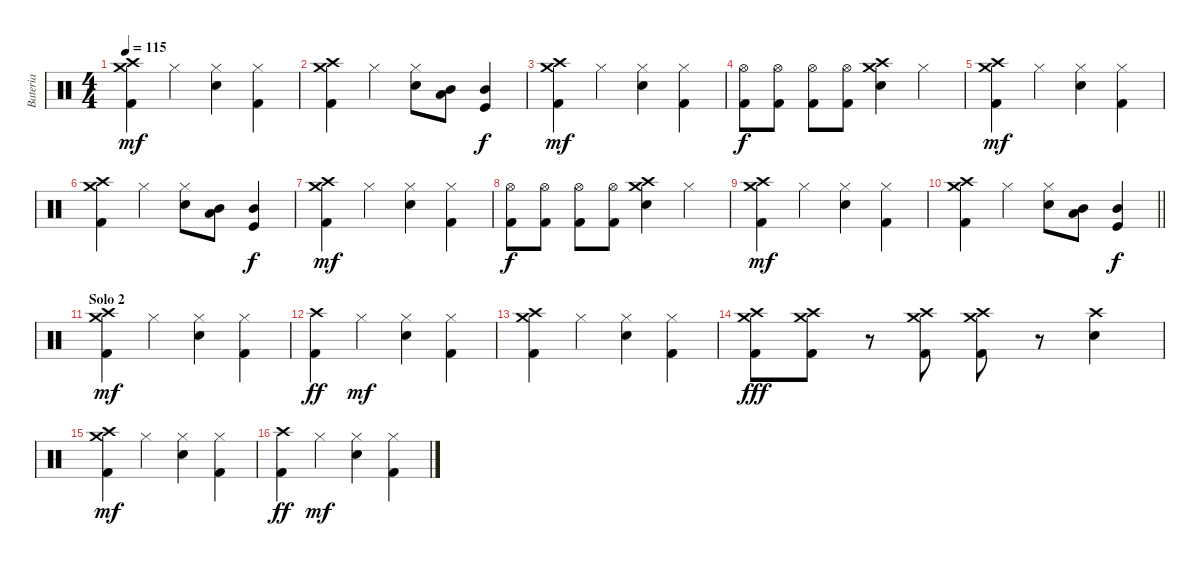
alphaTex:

\track ("Bateria" "Bateria") {instrument percussion}
\staff {score}
\articulation defaults
\ts (4 4)
\tempo 115
\clef neutral
\ks c
("Crash medium (hit)" "Kick (hit) 2" "Crash high (hit)").4{dy mf} "Hi-Hat (closed)".4 ("Hi-Hat (closed)" "Snare (hit) 2").4 ("Hi-Hat (closed)" "Kick (hit) 2").4 |
("Crash medium (hit)" "Kick (hit) 2" "Crash high (hit)").4 "Hi-Hat (closed)".4 ("Hi-Hat (closed)" "Snare (hit) 2").8 ("Low Tom (hit)" "Mid Tom (hit)").8 ("Mid Tom (hit)" "Kick (hit)").4{dy f} |
("Crash medium (hit)" "Kick (hit) 2" "Crash high (hit)").4{dy mf} "Hi-Hat (closed)".4 ("Hi-Hat (closed)" "Snare (hit) 2").4 ("Hi-Hat (closed)" "Kick (hit) 2").4 |
("Kick (hit) 2" "Hi-Hat (open)").8{dy f} ("Kick (hit) 2" "Hi-Hat (open)").8 ("Kick (hit) 2" "Hi-Hat (open)").8 ("Kick (hit) 2" "Hi-Hat (open)").8 ("Snare (hit) 2" "Crash high (hit)" "Crash medium (hit)").4 "Hi-Hat (closed)".4 |
("Crash medium (hit)" "Kick (hit) 2" "Crash high (hit)").4{dy mf} "Hi-Hat (closed)".4 ("Hi-Hat (closed)" "Snare (hit) 2").4 ("Hi-Hat (closed)" "Kick (hit) 2").4 |
("Crash medium (hit)" "Kick (hit) 2" "Crash high (hit)").4 "Hi-Hat (closed)".4 ("Hi-Hat (closed)" "Snare (hit) 2").8 ("Low Tom (hit)" "Mid Tom (hit)").8 ("Mid Tom (hit)" "Kick (hit)").4{dy f} |
("Crash medium (hit)" "Kick (hit) 2" "Crash high (hit)").4{dy mf} "Hi-Hat (closed)".4 ("Hi-Hat (closed)" "Snare (hit) 2").4 ("Hi-Hat (closed)" "Kick (hit) 2").4 |
("Kick (hit) 2" "Hi-Hat (open)").8{dy f} ("Kick (hit) 2" "Hi-Hat (open)").8 ("Kick (hit) 2" "Hi-Hat (open)").8 ("Kick (hit) 2" "Hi-Hat (open)").8 ("Snare (hit) 2" "Crash high (hit)" "Crash medium (hit)").4 "Hi-Hat (closed)".4 |
("Crash medium (hit)" "Kick (hit) 2" "Crash high (hit)").4{dy mf} "Hi-Hat (closed)".4 ("Hi-Hat (closed)" "Snare (hit) 2").4 ("Hi-Hat (closed)" "Kick (hit) 2").4 |
\barLineRight lightlight
("Crash medium (hit)" "Kick (hit) 2" "Crash high (hit)").4 "Hi-Hat (closed)".4 ("Hi-Hat (closed)" "Snare (hit) 2").8 ("Low Tom (hit)" "Mid Tom (hit)").8 ("Mid Tom (hit)" "Kick (hit)").4{dy f} |
\section ("" "Solo 2 ")
("Crash medium (hit)" "Kick (hit) 2" "Crash high (hit)").4{dy mf} "Hi-Hat (closed)".4 ("Hi-Hat (closed)" "Snare (hit) 2").4 ("Hi-Hat (closed)" "Kick (hit) 2").4 |
("Crash high (hit)" "Kick (hit) 2").4{dy ff} "Hi-Hat (closed)".4{dy mf} ("Hi-Hat (closed)" "Snare (hit) 2").4 ("Hi-Hat (closed)" "Kick (hit) 2").4 |
("Crash medium (hit)" "Kick (hit) 2" "Crash high (hit)").4 "Hi-Hat (closed)".4 ("Hi-Hat (closed)" "Snare (hit) 2").4 ("Hi-Hat (closed)" "Kick (hit) 2").4 |
("Crash high (hit)" "Kick (hit) 2" "Crash medium (hit)").8{dy fff} ("Crash high (hit)" "Kick (hit) 2" "Crash medium (hit)").8 r.8 ("Crash high (hit)" "Kick (hit) 2" "Crash medium (hit)").8 ("Crash high (hit)" "Kick (hit) 2" "Crash medium (hit)").8 r.8 ("Crash high (hit)" "Snare (hit) 2").4 |
("Crash medium (hit)" "Kick (hit) 2" "Crash high (hit)").4{dy mf} "Hi-Hat (closed)".4 ("Hi-Hat (closed)" "Snare (hit) 2").4 ("Hi-Hat (closed)" "Kick (hit) 2").4 |
("Crash high (hit)" "Kick (hit) 2").4{dy ff} "Hi-Hat (closed)".4{dy mf} ("Hi-Hat (closed)" "Snare (hit) 2").4 ("Hi-Hat (closed)" "Kick (hit) 2").4
